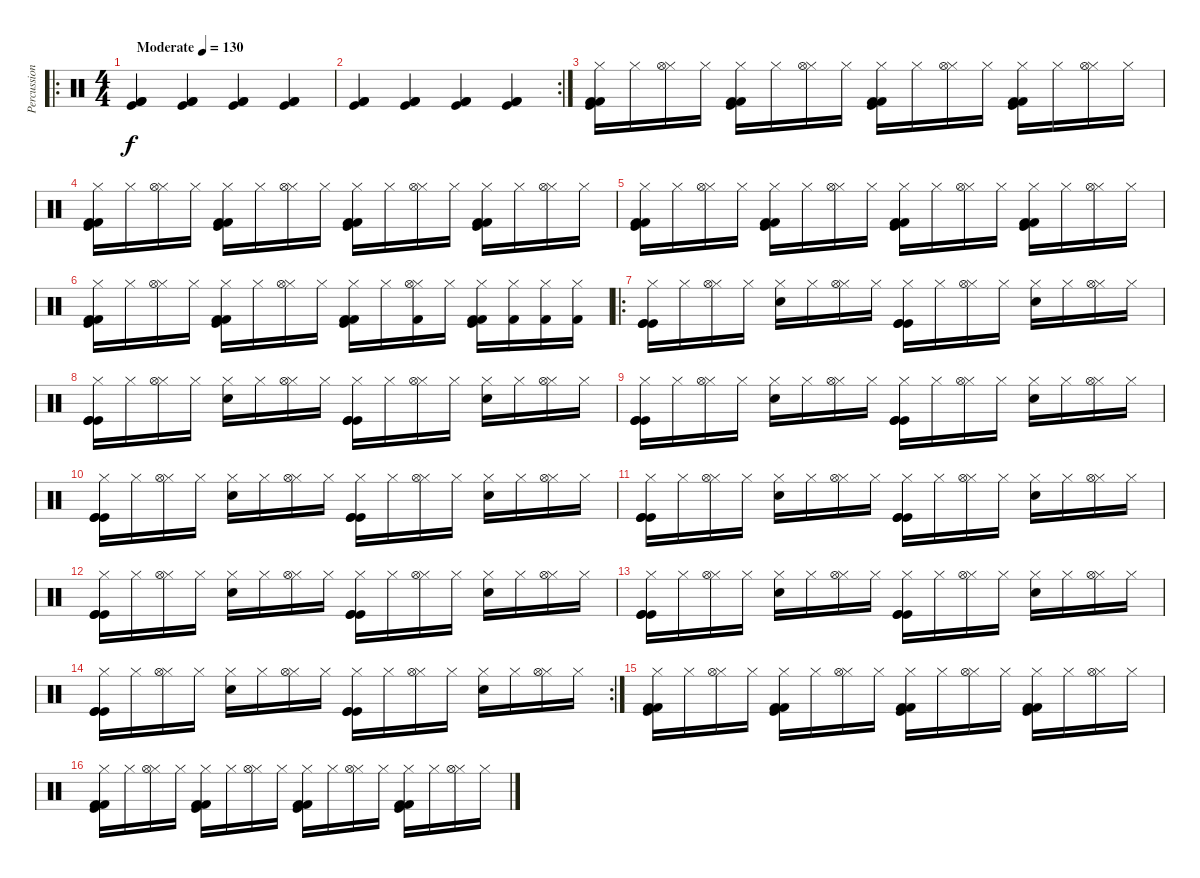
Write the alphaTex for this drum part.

\track ("Percussion" "Percussion") {instrument percussion}
\staff {score}
\articulation defaults
\ro
\ts (4 4)
\tempo (130 "Moderate")
\clef neutral
\ks c
("Kick (hit) 2" "Kick (hit) 2" "Kick (hit)").4{dy f} ("Kick (hit) 2" "Kick (hit) 2" "Kick (hit)").4 ("Kick (hit) 2" "Kick (hit) 2" "Kick (hit)").4 ("Kick (hit) 2" "Kick (hit) 2" "Kick (hit)").4 |
\rc 2
("Kick (hit) 2" "Kick (hit) 2" "Kick (hit)").4 ("Kick (hit) 2" "Kick (hit) 2" "Kick (hit)").4 ("Kick (hit) 2" "Kick (hit) 2" "Kick (hit)").4 ("Kick (hit) 2" "Kick (hit) 2" "Kick (hit)").4 |
("Hi-Hat (closed)" "Kick (hit)" "Kick (hit) 2" "Kick (hit) 2").16 "Hi-Hat (closed)".16 ("Hi-Hat (closed)" "Hi-Hat (open)").16 "Hi-Hat (closed)".16 ("Hi-Hat (closed)" "Kick (hit) 2" "Kick (hit) 2" "Kick (hit)").16 "Hi-Hat (closed)".16 ("Hi-Hat (closed)" "Hi-Hat (open)").16 "Hi-Hat (closed)".16 ("Hi-Hat (closed)" "Kick (hit)" "Kick (hit) 2" "Kick (hit) 2").16 "Hi-Hat (closed)".16 ("Hi-Hat (closed)" "Hi-Hat (open)").16 "Hi-Hat (closed)".16 ("Hi-Hat (closed)" "Kick (hit) 2" "Kick (hit) 2" "Kick (hit)").16 "Hi-Hat (closed)".16 ("Hi-Hat (closed)" "Hi-Hat (open)").16 "Hi-Hat (closed)".16 |
("Hi-Hat (closed)" "Kick (hit)" "Kick (hit) 2" "Kick (hit) 2").16 "Hi-Hat (closed)".16 ("Hi-Hat (closed)" "Hi-Hat (open)").16 "Hi-Hat (closed)".16 ("Hi-Hat (closed)" "Kick (hit) 2" "Kick (hit) 2" "Kick (hit)").16 "Hi-Hat (closed)".16 ("Hi-Hat (closed)" "Hi-Hat (open)").16 "Hi-Hat (closed)".16 ("Hi-Hat (closed)" "Kick (hit)" "Kick (hit) 2" "Kick (hit) 2").16 "Hi-Hat (closed)".16 ("Hi-Hat (closed)" "Hi-Hat (open)").16 "Hi-Hat (closed)".16 ("Hi-Hat (closed)" "Kick (hit) 2" "Kick (hit) 2" "Kick (hit)").16 "Hi-Hat (closed)".16 ("Hi-Hat (closed)" "Hi-Hat (open)").16 "Hi-Hat (closed)".16 |
("Hi-Hat (closed)" "Kick (hit)" "Kick (hit) 2" "Kick (hit) 2").16 "Hi-Hat (closed)".16 ("Hi-Hat (closed)" "Hi-Hat (open)").16 "Hi-Hat (closed)".16 ("Hi-Hat (closed)" "Kick (hit) 2" "Kick (hit) 2" "Kick (hit)").16 "Hi-Hat (closed)".16 ("Hi-Hat (closed)" "Hi-Hat (open)").16 "Hi-Hat (closed)".16 ("Hi-Hat (closed)" "Kick (hit)" "Kick (hit) 2" "Kick (hit) 2").16 "Hi-Hat (closed)".16 ("Hi-Hat (closed)" "Hi-Hat (open)").16 "Hi-Hat (closed)".16 ("Hi-Hat (closed)" "Kick (hit) 2" "Kick (hit) 2" "Kick (hit)").16 "Hi-Hat (closed)".16 ("Hi-Hat (closed)" "Hi-Hat (open)").16 "Hi-Hat (closed)".16 |
("Hi-Hat (closed)" "Kick (hit)" "Kick (hit) 2" "Kick (hit) 2").16 "Hi-Hat (closed)".16 ("Hi-Hat (closed)" "Hi-Hat (open)").16 "Hi-Hat (closed)".16 ("Hi-Hat (closed)" "Kick (hit) 2" "Kick (hit) 2" "Kick (hit)").16 "Hi-Hat (closed)".16 ("Hi-Hat (closed)" "Hi-Hat (open)").16 "Hi-Hat (closed)".16 ("Hi-Hat (closed)" "Kick (hit)" "Kick (hit) 2" "Kick (hit) 2").16 "Hi-Hat (closed)".16 ("Hi-Hat (closed)" "Kick (hit) 2" "Hi-Hat (open)").16 "Hi-Hat (closed)".16 ("Hi-Hat (closed)" "Kick (hit) 2" "Kick (hit) 2" "Kick (hit)").16 ("Hi-Hat (closed)" "Kick (hit) 2").16 ("Hi-Hat (closed)" "Kick (hit) 2").16 ("Hi-Hat (closed)" "Kick (hit) 2").16 |
\ro
("Hi-Hat (closed)" "Kick (hit)" "Kick (hit)" "Kick (hit)").16 "Hi-Hat (closed)".16 ("Hi-Hat (closed)" "Hi-Hat (open)").16 "Hi-Hat (closed)".16 ("Hi-Hat (closed)" "Electric Snare (hit)").16 "Hi-Hat (closed)".16 ("Hi-Hat (closed)" "Hi-Hat (open)").16 "Hi-Hat (closed)".16 ("Hi-Hat (closed)" "Kick (hit)" "Kick (hit)" "Kick (hit)").16 "Hi-Hat (closed)".16 ("Hi-Hat (closed)" "Hi-Hat (open)").16 "Hi-Hat (closed)".16 ("Hi-Hat (closed)" "Electric Snare (hit)").16 "Hi-Hat (closed)".16 ("Hi-Hat (closed)" "Hi-Hat (open)").16 "Hi-Hat (closed)".16 |
("Hi-Hat (closed)" "Kick (hit)" "Kick (hit)" "Kick (hit)").16 "Hi-Hat (closed)".16 ("Hi-Hat (closed)" "Hi-Hat (open)").16 "Hi-Hat (closed)".16 ("Hi-Hat (closed)" "Electric Snare (hit)").16 "Hi-Hat (closed)".16 ("Hi-Hat (closed)" "Hi-Hat (open)").16 "Hi-Hat (closed)".16 ("Hi-Hat (closed)" "Kick (hit)" "Kick (hit)" "Kick (hit)").16 "Hi-Hat (closed)".16 ("Hi-Hat (closed)" "Hi-Hat (open)").16 "Hi-Hat (closed)".16 ("Hi-Hat (closed)" "Electric Snare (hit)").16 "Hi-Hat (closed)".16 ("Hi-Hat (closed)" "Hi-Hat (open)").16 "Hi-Hat (closed)".16 |
("Hi-Hat (closed)" "Kick (hit)" "Kick (hit)" "Kick (hit)").16 "Hi-Hat (closed)".16 ("Hi-Hat (closed)" "Hi-Hat (open)").16 "Hi-Hat (closed)".16 ("Hi-Hat (closed)" "Electric Snare (hit)").16 "Hi-Hat (closed)".16 ("Hi-Hat (closed)" "Hi-Hat (open)").16 "Hi-Hat (closed)".16 ("Hi-Hat (closed)" "Kick (hit)" "Kick (hit)" "Kick (hit)").16 "Hi-Hat (closed)".16 ("Hi-Hat (closed)" "Hi-Hat (open)").16 "Hi-Hat (closed)".16 ("Hi-Hat (closed)" "Electric Snare (hit)").16 "Hi-Hat (closed)".16 ("Hi-Hat (closed)" "Hi-Hat (open)").16 "Hi-Hat (closed)".16 |
("Hi-Hat (closed)" "Kick (hit)" "Kick (hit)" "Kick (hit)").16 "Hi-Hat (closed)".16 ("Hi-Hat (closed)" "Hi-Hat (open)").16 "Hi-Hat (closed)".16 ("Hi-Hat (closed)" "Electric Snare (hit)").16 "Hi-Hat (closed)".16 ("Hi-Hat (closed)" "Hi-Hat (open)").16 "Hi-Hat (closed)".16 ("Hi-Hat (closed)" "Kick (hit)" "Kick (hit)" "Kick (hit)").16 "Hi-Hat (closed)".16 ("Hi-Hat (closed)" "Hi-Hat (open)").16 "Hi-Hat (closed)".16 ("Hi-Hat (closed)" "Electric Snare (hit)").16 "Hi-Hat (closed)".16 ("Hi-Hat (closed)" "Hi-Hat (open)").16 "Hi-Hat (closed)".16 |
("Hi-Hat (closed)" "Kick (hit)" "Kick (hit)" "Kick (hit)").16 "Hi-Hat (closed)".16 ("Hi-Hat (closed)" "Hi-Hat (open)").16 "Hi-Hat (closed)".16 ("Hi-Hat (closed)" "Electric Snare (hit)").16 "Hi-Hat (closed)".16 ("Hi-Hat (closed)" "Hi-Hat (open)").16 "Hi-Hat (closed)".16 ("Hi-Hat (closed)" "Kick (hit)" "Kick (hit)" "Kick (hit)").16 "Hi-Hat (closed)".16 ("Hi-Hat (closed)" "Hi-Hat (open)").16 "Hi-Hat (closed)".16 ("Hi-Hat (closed)" "Electric Snare (hit)").16 "Hi-Hat (closed)".16 ("Hi-Hat (closed)" "Hi-Hat (open)").16 "Hi-Hat (closed)".16 |
("Hi-Hat (closed)" "Kick (hit)" "Kick (hit)" "Kick (hit)").16 "Hi-Hat (closed)".16 ("Hi-Hat (closed)" "Hi-Hat (open)").16 "Hi-Hat (closed)".16 ("Hi-Hat (closed)" "Electric Snare (hit)").16 "Hi-Hat (closed)".16 ("Hi-Hat (closed)" "Hi-Hat (open)").16 "Hi-Hat (closed)".16 ("Hi-Hat (closed)" "Kick (hit)" "Kick (hit)" "Kick (hit)").16 "Hi-Hat (closed)".16 ("Hi-Hat (closed)" "Hi-Hat (open)").16 "Hi-Hat (closed)".16 ("Hi-Hat (closed)" "Electric Snare (hit)").16 "Hi-Hat (closed)".16 ("Hi-Hat (closed)" "Hi-Hat (open)").16 "Hi-Hat (closed)".16 |
("Hi-Hat (closed)" "Kick (hit)" "Kick (hit)" "Kick (hit)").16 "Hi-Hat (closed)".16 ("Hi-Hat (closed)" "Hi-Hat (open)").16 "Hi-Hat (closed)".16 ("Hi-Hat (closed)" "Electric Snare (hit)").16 "Hi-Hat (closed)".16 ("Hi-Hat (closed)" "Hi-Hat (open)").16 "Hi-Hat (closed)".16 ("Hi-Hat (closed)" "Kick (hit)" "Kick (hit)" "Kick (hit)").16 "Hi-Hat (closed)".16 ("Hi-Hat (closed)" "Hi-Hat (open)").16 "Hi-Hat (closed)".16 ("Hi-Hat (closed)" "Electric Snare (hit)").16 "Hi-Hat (closed)".16 ("Hi-Hat (closed)" "Hi-Hat (open)").16 "Hi-Hat (closed)".16 |
\rc 2
("Hi-Hat (closed)" "Kick (hit)" "Kick (hit)" "Kick (hit)").16 "Hi-Hat (closed)".16 ("Hi-Hat (closed)" "Hi-Hat (open)").16 "Hi-Hat (closed)".16 ("Hi-Hat (closed)" "Electric Snare (hit)").16 "Hi-Hat (closed)".16 ("Hi-Hat (closed)" "Hi-Hat (open)").16 "Hi-Hat (closed)".16 ("Hi-Hat (closed)" "Kick (hit)" "Kick (hit)" "Kick (hit)").16 "Hi-Hat (closed)".16 ("Hi-Hat (closed)" "Hi-Hat (open)").16 "Hi-Hat (closed)".16 ("Hi-Hat (closed)" "Electric Snare (hit)").16 "Hi-Hat (closed)".16 ("Hi-Hat (closed)" "Hi-Hat (open)").16 "Hi-Hat (closed)".16 |
("Hi-Hat (closed)" "Kick (hit)" "Kick (hit) 2" "Kick (hit) 2").16 "Hi-Hat (closed)".16 ("Hi-Hat (closed)" "Hi-Hat (open)").16 "Hi-Hat (closed)".16 ("Hi-Hat (closed)" "Kick (hit) 2" "Kick (hit) 2" "Kick (hit)").16 "Hi-Hat (closed)".16 ("Hi-Hat (closed)" "Hi-Hat (open)").16 "Hi-Hat (closed)".16 ("Hi-Hat (closed)" "Kick (hit)" "Kick (hit) 2" "Kick (hit) 2").16 "Hi-Hat (closed)".16 ("Hi-Hat (closed)" "Hi-Hat (open)").16 "Hi-Hat (closed)".16 ("Hi-Hat (closed)" "Kick (hit) 2" "Kick (hit) 2" "Kick (hit)").16 "Hi-Hat (closed)".16 ("Hi-Hat (closed)" "Hi-Hat (open)").16 "Hi-Hat (closed)".16 |
("Hi-Hat (closed)" "Kick (hit)" "Kick (hit) 2" "Kick (hit) 2").16 "Hi-Hat (closed)".16 ("Hi-Hat (closed)" "Hi-Hat (open)").16 "Hi-Hat (closed)".16 ("Hi-Hat (closed)" "Kick (hit) 2" "Kick (hit) 2" "Kick (hit)").16 "Hi-Hat (closed)".16 ("Hi-Hat (closed)" "Hi-Hat (open)").16 "Hi-Hat (closed)".16 ("Hi-Hat (closed)" "Kick (hit)" "Kick (hit) 2" "Kick (hit) 2").16 "Hi-Hat (closed)".16 ("Hi-Hat (closed)" "Hi-Hat (open)").16 "Hi-Hat (closed)".16 ("Hi-Hat (closed)" "Kick (hit) 2" "Kick (hit) 2" "Kick (hit)").16 "Hi-Hat (closed)".16 ("Hi-Hat (closed)" "Hi-Hat (open)").16 "Hi-Hat (closed)".16
